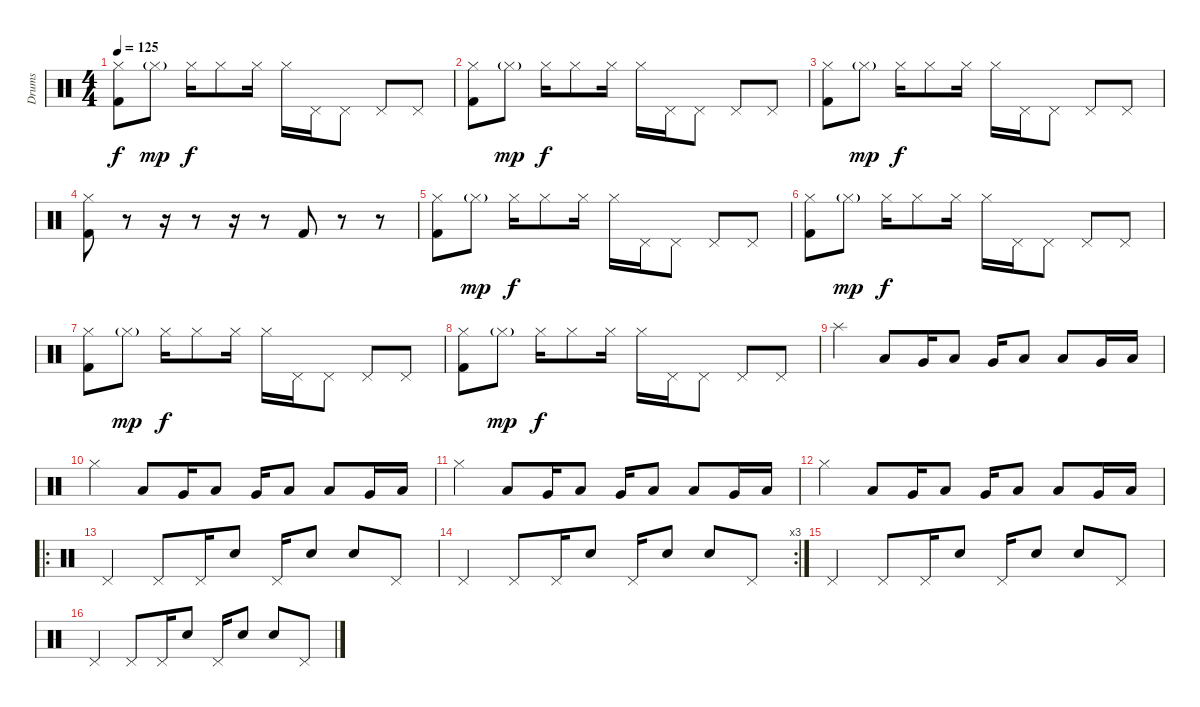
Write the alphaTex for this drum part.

\track ("Drums" "Drums") {instrument percussion}
\staff {score}
\articulation defaults
\ts (4 4)
\tempo 125
\clef neutral
\ks c
("Kick (hit) 2" "Hi-Hat (closed)").8{dy f} "Hi-Hat (closed)"{g}.8{dy mp} "Hi-Hat (closed)".16{dy f} "Hi-Hat (closed)".8 "Hi-Hat (closed)".16 "Hi-Hat (closed)".16 "Pedal Hi-Hat (hit)".16 "Pedal Hi-Hat (hit)".8 "Pedal Hi-Hat (hit)".8 "Pedal Hi-Hat (hit)".8 |
("Kick (hit) 2" "Hi-Hat (closed)").8 "Hi-Hat (closed)"{g}.8{dy mp} "Hi-Hat (closed)".16{dy f} "Hi-Hat (closed)".8 "Hi-Hat (closed)".16 "Hi-Hat (closed)".16 "Pedal Hi-Hat (hit)".16 "Pedal Hi-Hat (hit)".8 "Pedal Hi-Hat (hit)".8 "Pedal Hi-Hat (hit)".8 |
("Kick (hit) 2" "Hi-Hat (closed)").8 "Hi-Hat (closed)"{g}.8{dy mp} "Hi-Hat (closed)".16{dy f} "Hi-Hat (closed)".8 "Hi-Hat (closed)".16 "Hi-Hat (closed)".16 "Pedal Hi-Hat (hit)".16 "Pedal Hi-Hat (hit)".8 "Pedal Hi-Hat (hit)".8 "Pedal Hi-Hat (hit)".8 |
("Kick (hit) 2" "Hi-Hat (closed)").8 r.8 r.16 r.8 r.16 r.8 "Kick (hit) 2".8 r.8 r.8 |
("Kick (hit) 2" "Hi-Hat (closed)").8 "Hi-Hat (closed)"{g}.8{dy mp} "Hi-Hat (closed)".16{dy f} "Hi-Hat (closed)".8 "Hi-Hat (closed)".16 "Hi-Hat (closed)".16 "Pedal Hi-Hat (hit)".16 "Pedal Hi-Hat (hit)".8 "Pedal Hi-Hat (hit)".8 "Pedal Hi-Hat (hit)".8 |
("Kick (hit) 2" "Hi-Hat (closed)").8 "Hi-Hat (closed)"{g}.8{dy mp} "Hi-Hat (closed)".16{dy f} "Hi-Hat (closed)".8 "Hi-Hat (closed)".16 "Hi-Hat (closed)".16 "Pedal Hi-Hat (hit)".16 "Pedal Hi-Hat (hit)".8 "Pedal Hi-Hat (hit)".8 "Pedal Hi-Hat (hit)".8 |
("Kick (hit) 2" "Hi-Hat (closed)").8 "Hi-Hat (closed)"{g}.8{dy mp} "Hi-Hat (closed)".16{dy f} "Hi-Hat (closed)".8 "Hi-Hat (closed)".16 "Hi-Hat (closed)".16 "Pedal Hi-Hat (hit)".16 "Pedal Hi-Hat (hit)".8 "Pedal Hi-Hat (hit)".8 "Pedal Hi-Hat (hit)".8 |
("Kick (hit) 2" "Hi-Hat (closed)").8 "Hi-Hat (closed)"{g}.8{dy mp} "Hi-Hat (closed)".16{dy f} "Hi-Hat (closed)".8 "Hi-Hat (closed)".16 "Hi-Hat (closed)".16 "Pedal Hi-Hat (hit)".16 "Pedal Hi-Hat (hit)".8 "Pedal Hi-Hat (hit)".8 "Pedal Hi-Hat (hit)".8 |
"Splash (hit)".4 "Low Floor Tom (hit)".8 "Very Low Tom (hit)".16 "Low Floor Tom (hit)".8 "Very Low Tom (hit)".16 "Low Floor Tom (hit)".8 "Low Floor Tom (hit)".8 "Very Low Tom (hit)".16 "Low Floor Tom (hit)".16 |
"Hi-Hat (closed)".4 "Low Floor Tom (hit)".8 "Very Low Tom (hit)".16 "Low Floor Tom (hit)".8 "Very Low Tom (hit)".16 "Low Floor Tom (hit)".8 "Low Floor Tom (hit)".8 "Very Low Tom (hit)".16 "Low Floor Tom (hit)".16 |
"Hi-Hat (closed)".4 "Low Floor Tom (hit)".8 "Very Low Tom (hit)".16 "Low Floor Tom (hit)".8 "Very Low Tom (hit)".16 "Low Floor Tom (hit)".8 "Low Floor Tom (hit)".8 "Very Low Tom (hit)".16 "Low Floor Tom (hit)".16 |
"Hi-Hat (closed)".4 "Low Floor Tom (hit)".8 "Very Low Tom (hit)".16 "Low Floor Tom (hit)".8 "Very Low Tom (hit)".16 "Low Floor Tom (hit)".8 "Low Floor Tom (hit)".8 "Very Low Tom (hit)".16 "Low Floor Tom (hit)".16 |
\ro "Pedal Hi-Hat (hit)".4 "Pedal Hi-Hat (hit)".8 "Pedal Hi-Hat (hit)".16 "Snare (hit) 2".8 "Pedal Hi-Hat (hit)".16 "Snare (hit) 2".8 "Snare (hit) 2".8 "Pedal Hi-Hat (hit)".8
|
\rc 3 "Pedal Hi-Hat (hit)".4 "Pedal Hi-Hat (hit)".8 "Pedal Hi-Hat (hit)".16 "Snare (hit) 2".8 "Pedal Hi-Hat (hit)".16 "Snare (hit) 2".8 "Snare (hit) 2".8 "Pedal Hi-Hat (hit)".8
|
"Pedal Hi-Hat (hit)".4 "Pedal Hi-Hat (hit)".8 "Pedal Hi-Hat (hit)".16 "Snare (hit) 2".8 "Pedal Hi-Hat (hit)".16 "Snare (hit) 2".8 "Snare (hit) 2".8 "Pedal Hi-Hat (hit)".8 |
"Pedal Hi-Hat (hit)".4 "Pedal Hi-Hat (hit)".8 "Pedal Hi-Hat (hit)".16 "Snare (hit) 2".8 "Pedal Hi-Hat (hit)".16 "Snare (hit) 2".8 "Snare (hit) 2".8 "Pedal Hi-Hat (hit)".8
